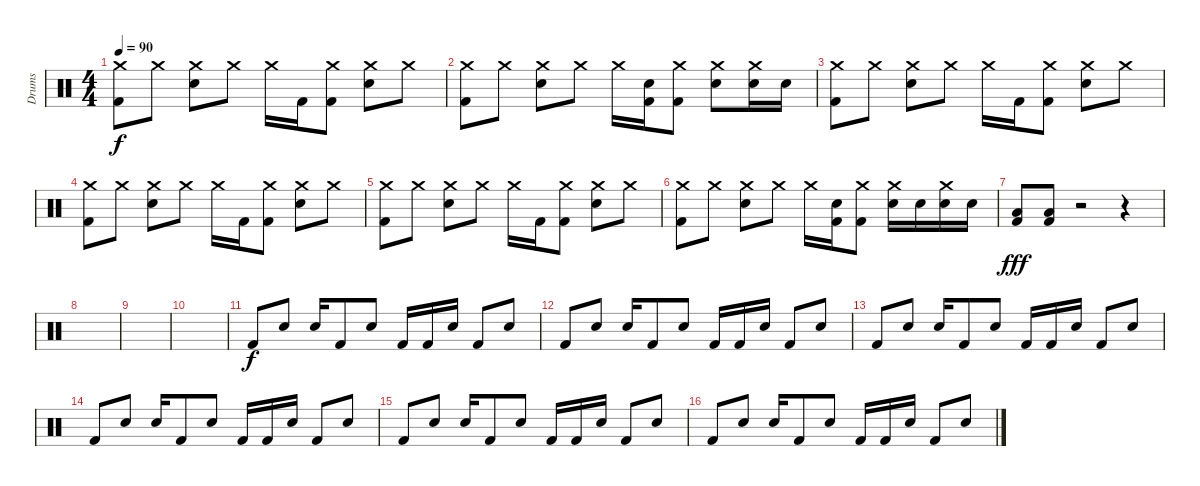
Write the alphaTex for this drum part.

\track ("Drums" "Drums") {instrument percussion}
\staff {score}
\articulation defaults
\ts (4 4)
\tempo 90
\clef neutral
\ks c
("Crash medium (hit)" "Kick (hit) 2").8{dy f} "Crash medium (hit)".8 ("Crash medium (hit)" "Snare (hit) 2").8 "Crash medium (hit)".8 "Crash medium (hit)".16 "Kick (hit) 2".16 ("Crash medium (hit)" "Kick (hit) 2").8 ("Crash medium (hit)" "Snare (hit) 2").8 "Crash medium (hit)".8 |
("Crash medium (hit)" "Kick (hit) 2").8 "Crash medium (hit)".8 ("Crash medium (hit)" "Snare (hit) 2").8 "Crash medium (hit)".8 "Crash medium (hit)".16 ("Snare (hit) 2" "Kick (hit) 2").16 ("Crash medium (hit)" "Kick (hit) 2").8 ("Crash medium (hit)" "Snare (hit) 2").8 ("Crash medium (hit)" "Snare (hit) 2").16 "Snare (hit) 2".16 |
("Crash medium (hit)" "Kick (hit) 2").8 "Crash medium (hit)".8 ("Crash medium (hit)" "Snare (hit) 2").8 "Crash medium (hit)".8 "Crash medium (hit)".16 "Kick (hit) 2".16 ("Crash medium (hit)" "Kick (hit) 2").8 ("Crash medium (hit)" "Snare (hit) 2").8 "Crash medium (hit)".8 |
("Crash medium (hit)" "Kick (hit) 2").8 "Crash medium (hit)".8 ("Crash medium (hit)" "Snare (hit) 2").8 "Crash medium (hit)".8 "Crash medium (hit)".16 "Kick (hit) 2".16 ("Crash medium (hit)" "Kick (hit) 2").8 ("Crash medium (hit)" "Snare (hit) 2").8 "Crash medium (hit)".8 |
("Crash medium (hit)" "Kick (hit) 2").8 "Crash medium (hit)".8 ("Crash medium (hit)" "Snare (hit) 2").8 "Crash medium (hit)".8 "Crash medium (hit)".16 "Kick (hit) 2".16 ("Crash medium (hit)" "Kick (hit) 2").8 ("Crash medium (hit)" "Snare (hit) 2").8 "Crash medium (hit)".8 |
("Crash medium (hit)" "Kick (hit) 2").8 "Crash medium (hit)".8 ("Crash medium (hit)" "Snare (hit) 2").8 "Crash medium (hit)".8 "Crash medium (hit)".16 ("Snare (hit) 2" "Kick (hit) 2").16 ("Crash medium (hit)" "Kick (hit) 2").8 ("Crash medium (hit)" "Snare (hit) 2").16 "Snare (hit) 2".16 ("Crash medium (hit)" "Snare (hit) 2").16 "Snare (hit) 2".16 |
("Low Tom (hit)" "Kick (hit) 2").8{dy fff} ("Low Tom (hit)" "Kick (hit) 2").8 r.2 r.4 |
|
|
|
"Kick (hit) 2".8{dy f} "Snare (hit) 2".8 "Snare (hit) 2".16 "Kick (hit) 2".8 "Snare (hit) 2".8 "Kick (hit) 2".16 "Kick (hit) 2".16 "Snare (hit) 2".16 "Kick (hit) 2".8 "Snare (hit) 2".8 |
"Kick (hit) 2".8 "Snare (hit) 2".8 "Snare (hit) 2".16 "Kick (hit) 2".8 "Snare (hit) 2".8 "Kick (hit) 2".16 "Kick (hit) 2".16 "Snare (hit) 2".16 "Kick (hit) 2".8 "Snare (hit) 2".8 |
"Kick (hit) 2".8 "Snare (hit) 2".8 "Snare (hit) 2".16 "Kick (hit) 2".8 "Snare (hit) 2".8 "Kick (hit) 2".16 "Kick (hit) 2".16 "Snare (hit) 2".16 "Kick (hit) 2".8 "Snare (hit) 2".8 |
"Kick (hit) 2".8 "Snare (hit) 2".8 "Snare (hit) 2".16 "Kick (hit) 2".8 "Snare (hit) 2".8 "Kick (hit) 2".16 "Kick (hit) 2".16 "Snare (hit) 2".16 "Kick (hit) 2".8 "Snare (hit) 2".8 |
"Kick (hit) 2".8 "Snare (hit) 2".8 "Snare (hit) 2".16 "Kick (hit) 2".8 "Snare (hit) 2".8 "Kick (hit) 2".16 "Kick (hit) 2".16 "Snare (hit) 2".16 "Kick (hit) 2".8 "Snare (hit) 2".8 |
"Kick (hit) 2".8 "Snare (hit) 2".8 "Snare (hit) 2".16 "Kick (hit) 2".8 "Snare (hit) 2".8 "Kick (hit) 2".16 "Kick (hit) 2".16 "Snare (hit) 2".16 "Kick (hit) 2".8 "Snare (hit) 2".8
